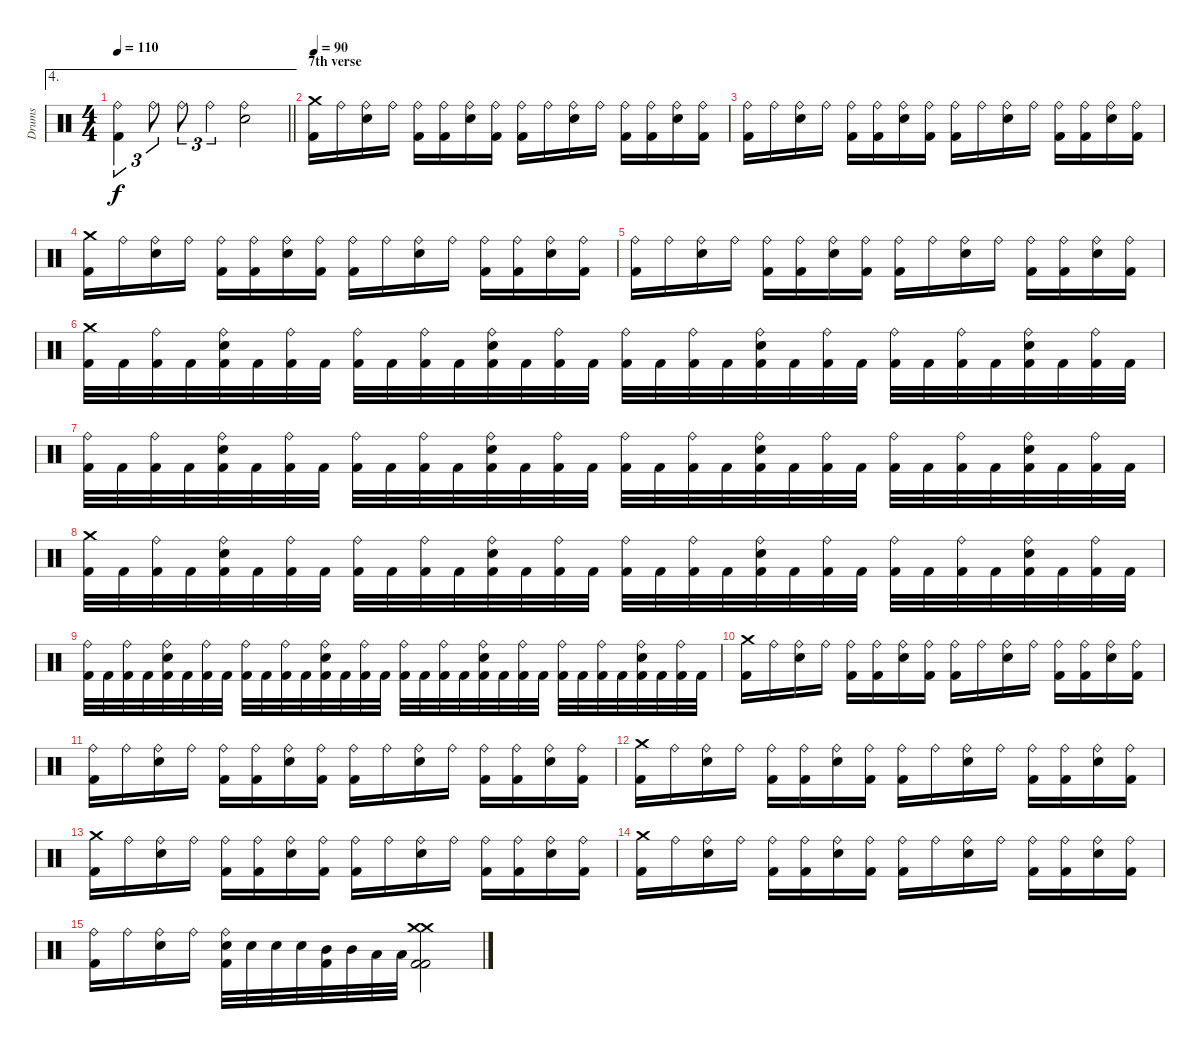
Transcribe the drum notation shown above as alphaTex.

\track ("Drums" "Drums") {instrument percussion}
\staff {score}
\articulation defaults
\ae 4
\ts (4 4)
\tempo 110
\clef neutral
\barLineRight lightlight
\ks c
("Ride (bell)" "Kick (hit) 2").4{tu (3 2) dy f} "Ride (bell)".8{tu (3 2)} "Ride (bell)".8{tu (3 2)} "Ride (bell)".4{tu (3 2)} ("Ride (bell)" "Snare (hit) 2").2 |
\section ("" "7th verse")
\tempo 90
("Crash medium (hit)" "Kick (hit) 2").16 "Ride (bell)".16 ("Ride (bell)" "Snare (hit) 2").16 "Ride (bell)".16 ("Ride (bell)" "Kick (hit) 2").16 ("Ride (bell)" "Kick (hit) 2").16 ("Ride (bell)" "Snare (hit) 2").16 ("Ride (bell)" "Kick (hit) 2").16 ("Ride (bell)" "Kick (hit) 2").16 "Ride (bell)".16 ("Ride (bell)" "Snare (hit) 2").16 "Ride (bell)".16 ("Ride (bell)" "Kick (hit) 2").16 ("Ride (bell)" "Kick (hit) 2").16 ("Ride (bell)" "Snare (hit) 2").16 ("Ride (bell)" "Kick (hit) 2").16 |
("Ride (bell)" "Kick (hit) 2").16 "Ride (bell)".16 ("Ride (bell)" "Snare (hit) 2").16 "Ride (bell)".16 ("Ride (bell)" "Kick (hit) 2").16 ("Ride (bell)" "Kick (hit) 2").16 ("Ride (bell)" "Snare (hit) 2").16 ("Ride (bell)" "Kick (hit) 2").16 ("Ride (bell)" "Kick (hit) 2").16 "Ride (bell)".16 ("Ride (bell)" "Snare (hit) 2").16 "Ride (bell)".16 ("Ride (bell)" "Kick (hit) 2").16 ("Ride (bell)" "Kick (hit) 2").16 ("Ride (bell)" "Snare (hit) 2").16 ("Ride (bell)" "Kick (hit) 2").16 |
("Crash medium (hit)" "Kick (hit) 2").16 "Ride (bell)".16 ("Ride (bell)" "Snare (hit) 2").16 "Ride (bell)".16 ("Ride (bell)" "Kick (hit) 2").16 ("Ride (bell)" "Kick (hit) 2").16 ("Ride (bell)" "Snare (hit) 2").16 ("Ride (bell)" "Kick (hit) 2").16 ("Ride (bell)" "Kick (hit) 2").16 "Ride (bell)".16 ("Ride (bell)" "Snare (hit) 2").16 "Ride (bell)".16 ("Ride (bell)" "Kick (hit) 2").16 ("Ride (bell)" "Kick (hit) 2").16 ("Ride (bell)" "Snare (hit) 2").16 ("Ride (bell)" "Kick (hit) 2").16 |
("Ride (bell)" "Kick (hit) 2").16 "Ride (bell)".16 ("Ride (bell)" "Snare (hit) 2").16 "Ride (bell)".16 ("Ride (bell)" "Kick (hit) 2").16 ("Ride (bell)" "Kick (hit) 2").16 ("Ride (bell)" "Snare (hit) 2").16 ("Ride (bell)" "Kick (hit) 2").16 ("Ride (bell)" "Kick (hit) 2").16 "Ride (bell)".16 ("Ride (bell)" "Snare (hit) 2").16 "Ride (bell)".16 ("Ride (bell)" "Kick (hit) 2").16 ("Ride (bell)" "Kick (hit) 2").16 ("Ride (bell)" "Snare (hit) 2").16 ("Ride (bell)" "Kick (hit) 2").16 |
("Crash medium (hit)" "Kick (hit) 2").32 "Kick (hit) 2".32 ("Ride (bell)" "Kick (hit) 2").32 "Kick (hit) 2".32 ("Ride (bell)" "Snare (hit) 2" "Kick (hit) 2").32 "Kick (hit) 2".32 ("Ride (bell)" "Kick (hit) 2").32 "Kick (hit) 2".32 ("Ride (bell)" "Kick (hit) 2").32 "Kick (hit) 2".32 ("Ride (bell)" "Kick (hit) 2").32 "Kick (hit) 2".32 ("Ride (bell)" "Snare (hit) 2" "Kick (hit) 2").32 "Kick (hit) 2".32 ("Ride (bell)" "Kick (hit) 2").32 "Kick (hit) 2".32 ("Ride (bell)" "Kick (hit) 2").32 "Kick (hit) 2".32 ("Ride (bell)" "Kick (hit) 2").32 "Kick (hit) 2".32 ("Ride (bell)" "Snare (hit) 2" "Kick (hit) 2").32 "Kick (hit) 2".32 ("Ride (bell)" "Kick (hit) 2").32 "Kick (hit) 2".32 ("Ride (bell)" "Kick (hit) 2").32 "Kick (hit) 2".32 ("Ride (bell)" "Kick (hit) 2").32 "Kick (hit) 2".32 ("Ride (bell)" "Snare (hit) 2" "Kick (hit) 2").32 "Kick (hit) 2".32 ("Ride (bell)" "Kick (hit) 2").32 "Kick (hit) 2".32 |
("Ride (bell)" "Kick (hit) 2").32 "Kick (hit) 2".32 ("Ride (bell)" "Kick (hit) 2").32 "Kick (hit) 2".32 ("Ride (bell)" "Snare (hit) 2" "Kick (hit) 2").32 "Kick (hit) 2".32 ("Ride (bell)" "Kick (hit) 2").32 "Kick (hit) 2".32 ("Ride (bell)" "Kick (hit) 2").32 "Kick (hit) 2".32 ("Ride (bell)" "Kick (hit) 2").32 "Kick (hit) 2".32 ("Ride (bell)" "Snare (hit) 2" "Kick (hit) 2").32 "Kick (hit) 2".32 ("Ride (bell)" "Kick (hit) 2").32 "Kick (hit) 2".32 ("Ride (bell)" "Kick (hit) 2").32 "Kick (hit) 2".32 ("Ride (bell)" "Kick (hit) 2").32 "Kick (hit) 2".32 ("Ride (bell)" "Snare (hit) 2" "Kick (hit) 2").32 "Kick (hit) 2".32 ("Ride (bell)" "Kick (hit) 2").32 "Kick (hit) 2".32 ("Ride (bell)" "Kick (hit) 2").32 "Kick (hit) 2".32 ("Ride (bell)" "Kick (hit) 2").32 "Kick (hit) 2".32 ("Ride (bell)" "Snare (hit) 2" "Kick (hit) 2").32 "Kick (hit) 2".32 ("Ride (bell)" "Kick (hit) 2").32 "Kick (hit) 2".32 |
("Crash medium (hit)" "Kick (hit) 2").32 "Kick (hit) 2".32 ("Ride (bell)" "Kick (hit) 2").32 "Kick (hit) 2".32 ("Ride (bell)" "Snare (hit) 2" "Kick (hit) 2").32 "Kick (hit) 2".32 ("Ride (bell)" "Kick (hit) 2").32 "Kick (hit) 2".32 ("Ride (bell)" "Kick (hit) 2").32 "Kick (hit) 2".32 ("Ride (bell)" "Kick (hit) 2").32 "Kick (hit) 2".32 ("Ride (bell)" "Snare (hit) 2" "Kick (hit) 2").32 "Kick (hit) 2".32 ("Ride (bell)" "Kick (hit) 2").32 "Kick (hit) 2".32 ("Ride (bell)" "Kick (hit) 2").32 "Kick (hit) 2".32 ("Ride (bell)" "Kick (hit) 2").32 "Kick (hit) 2".32 ("Ride (bell)" "Snare (hit) 2" "Kick (hit) 2").32 "Kick (hit) 2".32 ("Ride (bell)" "Kick (hit) 2").32 "Kick (hit) 2".32 ("Ride (bell)" "Kick (hit) 2").32 "Kick (hit) 2".32 ("Ride (bell)" "Kick (hit) 2").32 "Kick (hit) 2".32 ("Ride (bell)" "Snare (hit) 2" "Kick (hit) 2").32 "Kick (hit) 2".32 ("Ride (bell)" "Kick (hit) 2").32 "Kick (hit) 2".32 |
("Ride (bell)" "Kick (hit) 2").32 "Kick (hit) 2".32 ("Ride (bell)" "Kick (hit) 2").32 "Kick (hit) 2".32 ("Ride (bell)" "Snare (hit) 2" "Kick (hit) 2").32 "Kick (hit) 2".32 ("Ride (bell)" "Kick (hit) 2").32 "Kick (hit) 2".32 ("Ride (bell)" "Kick (hit) 2").32 "Kick (hit) 2".32 ("Ride (bell)" "Kick (hit) 2").32 "Kick (hit) 2".32 ("Ride (bell)" "Snare (hit) 2" "Kick (hit) 2").32 "Kick (hit) 2".32 ("Ride (bell)" "Kick (hit) 2").32 "Kick (hit) 2".32 ("Ride (bell)" "Kick (hit) 2").32 "Kick (hit) 2".32 ("Ride (bell)" "Kick (hit) 2").32 "Kick (hit) 2".32 ("Ride (bell)" "Snare (hit) 2" "Kick (hit) 2").32 "Kick (hit) 2".32 ("Ride (bell)" "Kick (hit) 2").32 "Kick (hit) 2".32 ("Ride (bell)" "Kick (hit) 2").32 "Kick (hit) 2".32 ("Ride (bell)" "Kick (hit) 2").32 "Kick (hit) 2".32 ("Ride (bell)" "Snare (hit) 2" "Kick (hit) 2").32 "Kick (hit) 2".32 ("Ride (bell)" "Kick (hit) 2").32 "Kick (hit) 2".32 |
("Crash medium (hit)" "Kick (hit) 2").16 "Ride (bell)".16 ("Ride (bell)" "Snare (hit) 2").16 "Ride (bell)".16 ("Ride (bell)" "Kick (hit) 2").16 ("Ride (bell)" "Kick (hit) 2").16 ("Ride (bell)" "Snare (hit) 2").16 ("Ride (bell)" "Kick (hit) 2").16 ("Ride (bell)" "Kick (hit) 2").16 "Ride (bell)".16 ("Ride (bell)" "Snare (hit) 2").16 "Ride (bell)".16 ("Ride (bell)" "Kick (hit) 2").16 ("Ride (bell)" "Kick (hit) 2").16 ("Ride (bell)" "Snare (hit) 2").16 ("Ride (bell)" "Kick (hit) 2").16 |
("Ride (bell)" "Kick (hit) 2").16 "Ride (bell)".16 ("Ride (bell)" "Snare (hit) 2").16 "Ride (bell)".16 ("Ride (bell)" "Kick (hit) 2").16 ("Ride (bell)" "Kick (hit) 2").16 ("Ride (bell)" "Snare (hit) 2").16 ("Ride (bell)" "Kick (hit) 2").16 ("Ride (bell)" "Kick (hit) 2").16 "Ride (bell)".16 ("Ride (bell)" "Snare (hit) 2").16 "Ride (bell)".16 ("Ride (bell)" "Kick (hit) 2").16 ("Ride (bell)" "Kick (hit) 2").16 ("Ride (bell)" "Snare (hit) 2").16 ("Ride (bell)" "Kick (hit) 2").16 |
("Crash medium (hit)" "Kick (hit) 2").16 "Ride (bell)".16 ("Ride (bell)" "Snare (hit) 2").16 "Ride (bell)".16 ("Ride (bell)" "Kick (hit) 2").16 ("Ride (bell)" "Kick (hit) 2").16 ("Ride (bell)" "Snare (hit) 2").16 ("Ride (bell)" "Kick (hit) 2").16 ("Ride (bell)" "Kick (hit) 2").16 "Ride (bell)".16 ("Ride (bell)" "Snare (hit) 2").16 "Ride (bell)".16 ("Ride (bell)" "Kick (hit) 2").16 ("Ride (bell)" "Kick (hit) 2").16 ("Ride (bell)" "Snare (hit) 2").16 ("Ride (bell)" "Kick (hit) 2").16 |
("Crash medium (hit)" "Kick (hit) 2").16 "Ride (bell)".16 ("Ride (bell)" "Snare (hit) 2").16 "Ride (bell)".16 ("Ride (bell)" "Kick (hit) 2").16 ("Ride (bell)" "Kick (hit) 2").16 ("Ride (bell)" "Snare (hit) 2").16 ("Ride (bell)" "Kick (hit) 2").16 ("Ride (bell)" "Kick (hit) 2").16 "Ride (bell)".16 ("Ride (bell)" "Snare (hit) 2").16 "Ride (bell)".16 ("Ride (bell)" "Kick (hit) 2").16 ("Ride (bell)" "Kick (hit) 2").16 ("Ride (bell)" "Snare (hit) 2").16 ("Ride (bell)" "Kick (hit) 2").16 |
("Crash medium (hit)" "Kick (hit) 2").16 "Ride (bell)".16 ("Ride (bell)" "Snare (hit) 2").16 "Ride (bell)".16 ("Ride (bell)" "Kick (hit) 2").16 ("Ride (bell)" "Kick (hit) 2").16 ("Ride (bell)" "Snare (hit) 2").16 ("Ride (bell)" "Kick (hit) 2").16 ("Ride (bell)" "Kick (hit) 2").16 "Ride (bell)".16 ("Ride (bell)" "Snare (hit) 2").16 "Ride (bell)".16 ("Ride (bell)" "Kick (hit) 2").16 ("Ride (bell)" "Kick (hit) 2").16 ("Ride (bell)" "Snare (hit) 2").16 ("Ride (bell)" "Kick (hit) 2").16 |
("Ride (bell)" "Kick (hit) 2").16 "Ride (bell)".16 ("Ride (bell)" "Snare (hit) 2").16 "Ride (bell)".16 ("Ride (bell)" "Snare (hit) 2" "Kick (hit) 2").32 "Snare (hit) 2".32 "Snare (hit) 2".32 "Snare (hit) 2".32 ("Mid Tom (hit)" "Kick (hit) 2").32 "Mid Tom (hit)".32 "Low Tom (hit)".32 "Low Tom (hit)".32 ("Crash medium (hit)" "Crash medium (hit)" "Kick (hit) 2" "Kick (hit) 2").2
